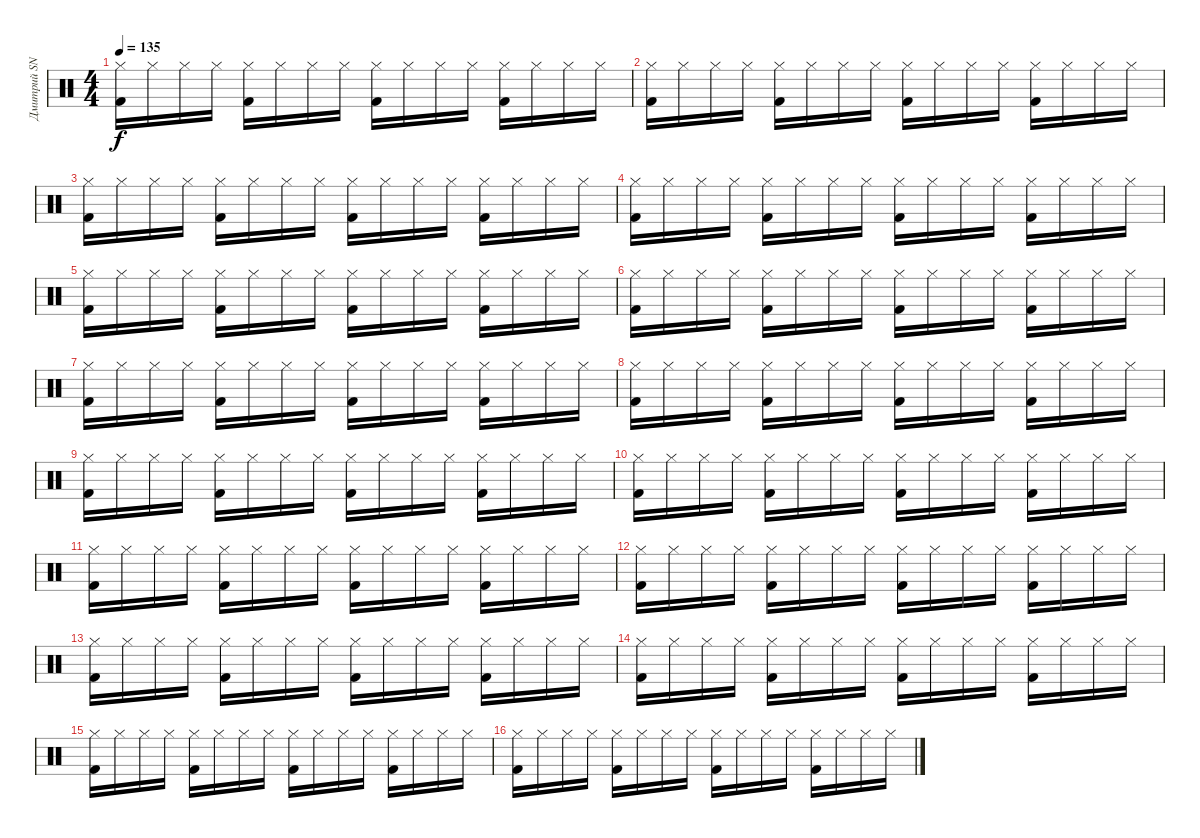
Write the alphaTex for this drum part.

\track ("Дмитрий SNAKE Хакимов" "Дмитрий SN") {instrument percussion}
\staff {score}
\articulation defaults
\ts (4 4)
\tempo 135
\clef neutral
\ks c
("Hi-Hat (closed)" "Kick (hit) 2").16{dy f} "Hi-Hat (closed)".16 "Hi-Hat (closed)".16 "Hi-Hat (closed)".16 ("Hi-Hat (closed)" "Kick (hit) 2").16 "Hi-Hat (closed)".16 "Hi-Hat (closed)".16 "Hi-Hat (closed)".16 ("Hi-Hat (closed)" "Kick (hit) 2").16 "Hi-Hat (closed)".16 "Hi-Hat (closed)".16 "Hi-Hat (closed)".16 ("Hi-Hat (closed)" "Kick (hit) 2").16 "Hi-Hat (closed)".16 "Hi-Hat (closed)".16 "Hi-Hat (closed)".16 |
("Hi-Hat (closed)" "Kick (hit) 2").16 "Hi-Hat (closed)".16 "Hi-Hat (closed)".16 "Hi-Hat (closed)".16 ("Hi-Hat (closed)" "Kick (hit) 2").16 "Hi-Hat (closed)".16 "Hi-Hat (closed)".16 "Hi-Hat (closed)".16 ("Hi-Hat (closed)" "Kick (hit) 2").16 "Hi-Hat (closed)".16 "Hi-Hat (closed)".16 "Hi-Hat (closed)".16 ("Hi-Hat (closed)" "Kick (hit) 2").16 "Hi-Hat (closed)".16 "Hi-Hat (closed)".16 "Hi-Hat (closed)".16 |
("Hi-Hat (closed)" "Kick (hit) 2").16 "Hi-Hat (closed)".16 "Hi-Hat (closed)".16 "Hi-Hat (closed)".16 ("Hi-Hat (closed)" "Kick (hit) 2").16 "Hi-Hat (closed)".16 "Hi-Hat (closed)".16 "Hi-Hat (closed)".16 ("Hi-Hat (closed)" "Kick (hit) 2").16 "Hi-Hat (closed)".16 "Hi-Hat (closed)".16 "Hi-Hat (closed)".16 ("Hi-Hat (closed)" "Kick (hit) 2").16 "Hi-Hat (closed)".16 "Hi-Hat (closed)".16 "Hi-Hat (closed)".16 |
("Hi-Hat (closed)" "Kick (hit) 2").16 "Hi-Hat (closed)".16 "Hi-Hat (closed)".16 "Hi-Hat (closed)".16 ("Hi-Hat (closed)" "Kick (hit) 2").16 "Hi-Hat (closed)".16 "Hi-Hat (closed)".16 "Hi-Hat (closed)".16 ("Hi-Hat (closed)" "Kick (hit) 2").16 "Hi-Hat (closed)".16 "Hi-Hat (closed)".16 "Hi-Hat (closed)".16 ("Hi-Hat (closed)" "Kick (hit) 2").16 "Hi-Hat (closed)".16 "Hi-Hat (closed)".16 "Hi-Hat (closed)".16 |
("Hi-Hat (closed)" "Kick (hit) 2").16 "Hi-Hat (closed)".16 "Hi-Hat (closed)".16 "Hi-Hat (closed)".16 ("Hi-Hat (closed)" "Kick (hit) 2").16 "Hi-Hat (closed)".16 "Hi-Hat (closed)".16 "Hi-Hat (closed)".16 ("Hi-Hat (closed)" "Kick (hit) 2").16 "Hi-Hat (closed)".16 "Hi-Hat (closed)".16 "Hi-Hat (closed)".16 ("Hi-Hat (closed)" "Kick (hit) 2").16 "Hi-Hat (closed)".16 "Hi-Hat (closed)".16 "Hi-Hat (closed)".16 |
("Hi-Hat (closed)" "Kick (hit) 2").16 "Hi-Hat (closed)".16 "Hi-Hat (closed)".16 "Hi-Hat (closed)".16 ("Hi-Hat (closed)" "Kick (hit) 2").16 "Hi-Hat (closed)".16 "Hi-Hat (closed)".16 "Hi-Hat (closed)".16 ("Hi-Hat (closed)" "Kick (hit) 2").16 "Hi-Hat (closed)".16 "Hi-Hat (closed)".16 "Hi-Hat (closed)".16 ("Hi-Hat (closed)" "Kick (hit) 2").16 "Hi-Hat (closed)".16 "Hi-Hat (closed)".16 "Hi-Hat (closed)".16 |
("Hi-Hat (closed)" "Kick (hit) 2").16 "Hi-Hat (closed)".16 "Hi-Hat (closed)".16 "Hi-Hat (closed)".16 ("Hi-Hat (closed)" "Kick (hit) 2").16 "Hi-Hat (closed)".16 "Hi-Hat (closed)".16 "Hi-Hat (closed)".16 ("Hi-Hat (closed)" "Kick (hit) 2").16 "Hi-Hat (closed)".16 "Hi-Hat (closed)".16 "Hi-Hat (closed)".16 ("Hi-Hat (closed)" "Kick (hit) 2").16 "Hi-Hat (closed)".16 "Hi-Hat (closed)".16 "Hi-Hat (closed)".16 |
("Hi-Hat (closed)" "Kick (hit) 2").16 "Hi-Hat (closed)".16 "Hi-Hat (closed)".16 "Hi-Hat (closed)".16 ("Hi-Hat (closed)" "Kick (hit) 2").16 "Hi-Hat (closed)".16 "Hi-Hat (closed)".16 "Hi-Hat (closed)".16 ("Hi-Hat (closed)" "Kick (hit) 2").16 "Hi-Hat (closed)".16 "Hi-Hat (closed)".16 "Hi-Hat (closed)".16 ("Hi-Hat (closed)" "Kick (hit) 2").16 "Hi-Hat (closed)".16 "Hi-Hat (closed)".16 "Hi-Hat (closed)".16 |
("Hi-Hat (closed)" "Kick (hit) 2").16 "Hi-Hat (closed)".16 "Hi-Hat (closed)".16 "Hi-Hat (closed)".16 ("Hi-Hat (closed)" "Kick (hit) 2").16 "Hi-Hat (closed)".16 "Hi-Hat (closed)".16 "Hi-Hat (closed)".16 ("Hi-Hat (closed)" "Kick (hit) 2").16 "Hi-Hat (closed)".16 "Hi-Hat (closed)".16 "Hi-Hat (closed)".16 ("Hi-Hat (closed)" "Kick (hit) 2").16 "Hi-Hat (closed)".16 "Hi-Hat (closed)".16 "Hi-Hat (closed)".16 |
("Hi-Hat (closed)" "Kick (hit) 2").16 "Hi-Hat (closed)".16 "Hi-Hat (closed)".16 "Hi-Hat (closed)".16 ("Hi-Hat (closed)" "Kick (hit) 2").16 "Hi-Hat (closed)".16 "Hi-Hat (closed)".16 "Hi-Hat (closed)".16 ("Hi-Hat (closed)" "Kick (hit) 2").16 "Hi-Hat (closed)".16 "Hi-Hat (closed)".16 "Hi-Hat (closed)".16 ("Hi-Hat (closed)" "Kick (hit) 2").16 "Hi-Hat (closed)".16 "Hi-Hat (closed)".16 "Hi-Hat (closed)".16 |
("Hi-Hat (closed)" "Kick (hit) 2").16 "Hi-Hat (closed)".16 "Hi-Hat (closed)".16 "Hi-Hat (closed)".16 ("Hi-Hat (closed)" "Kick (hit) 2").16 "Hi-Hat (closed)".16 "Hi-Hat (closed)".16 "Hi-Hat (closed)".16 ("Hi-Hat (closed)" "Kick (hit) 2").16 "Hi-Hat (closed)".16 "Hi-Hat (closed)".16 "Hi-Hat (closed)".16 ("Hi-Hat (closed)" "Kick (hit) 2").16 "Hi-Hat (closed)".16 "Hi-Hat (closed)".16 "Hi-Hat (closed)".16 |
("Hi-Hat (closed)" "Kick (hit) 2").16 "Hi-Hat (closed)".16 "Hi-Hat (closed)".16 "Hi-Hat (closed)".16 ("Hi-Hat (closed)" "Kick (hit) 2").16 "Hi-Hat (closed)".16 "Hi-Hat (closed)".16 "Hi-Hat (closed)".16 ("Hi-Hat (closed)" "Kick (hit) 2").16 "Hi-Hat (closed)".16 "Hi-Hat (closed)".16 "Hi-Hat (closed)".16 ("Hi-Hat (closed)" "Kick (hit) 2").16 "Hi-Hat (closed)".16 "Hi-Hat (closed)".16 "Hi-Hat (closed)".16 |
("Hi-Hat (closed)" "Kick (hit) 2").16 "Hi-Hat (closed)".16 "Hi-Hat (closed)".16 "Hi-Hat (closed)".16 ("Hi-Hat (closed)" "Kick (hit) 2").16 "Hi-Hat (closed)".16 "Hi-Hat (closed)".16 "Hi-Hat (closed)".16 ("Hi-Hat (closed)" "Kick (hit) 2").16 "Hi-Hat (closed)".16 "Hi-Hat (closed)".16 "Hi-Hat (closed)".16 ("Hi-Hat (closed)" "Kick (hit) 2").16 "Hi-Hat (closed)".16 "Hi-Hat (closed)".16 "Hi-Hat (closed)".16 |
("Hi-Hat (closed)" "Kick (hit) 2").16 "Hi-Hat (closed)".16 "Hi-Hat (closed)".16 "Hi-Hat (closed)".16 ("Hi-Hat (closed)" "Kick (hit) 2").16 "Hi-Hat (closed)".16 "Hi-Hat (closed)".16 "Hi-Hat (closed)".16 ("Hi-Hat (closed)" "Kick (hit) 2").16 "Hi-Hat (closed)".16 "Hi-Hat (closed)".16 "Hi-Hat (closed)".16 ("Hi-Hat (closed)" "Kick (hit) 2").16 "Hi-Hat (closed)".16 "Hi-Hat (closed)".16 "Hi-Hat (closed)".16 |
("Hi-Hat (closed)" "Kick (hit) 2").16 "Hi-Hat (closed)".16 "Hi-Hat (closed)".16 "Hi-Hat (closed)".16 ("Hi-Hat (closed)" "Kick (hit) 2").16 "Hi-Hat (closed)".16 "Hi-Hat (closed)".16 "Hi-Hat (closed)".16 ("Hi-Hat (closed)" "Kick (hit) 2").16 "Hi-Hat (closed)".16 "Hi-Hat (closed)".16 "Hi-Hat (closed)".16 ("Hi-Hat (closed)" "Kick (hit) 2").16 "Hi-Hat (closed)".16 "Hi-Hat (closed)".16 "Hi-Hat (closed)".16 |
("Hi-Hat (closed)" "Kick (hit) 2").16 "Hi-Hat (closed)".16 "Hi-Hat (closed)".16 "Hi-Hat (closed)".16 ("Hi-Hat (closed)" "Kick (hit) 2").16 "Hi-Hat (closed)".16 "Hi-Hat (closed)".16 "Hi-Hat (closed)".16 ("Hi-Hat (closed)" "Kick (hit) 2").16 "Hi-Hat (closed)".16 "Hi-Hat (closed)".16 "Hi-Hat (closed)".16 ("Hi-Hat (closed)" "Kick (hit) 2").16 "Hi-Hat (closed)".16 "Hi-Hat (closed)".16 "Hi-Hat (closed)".16
